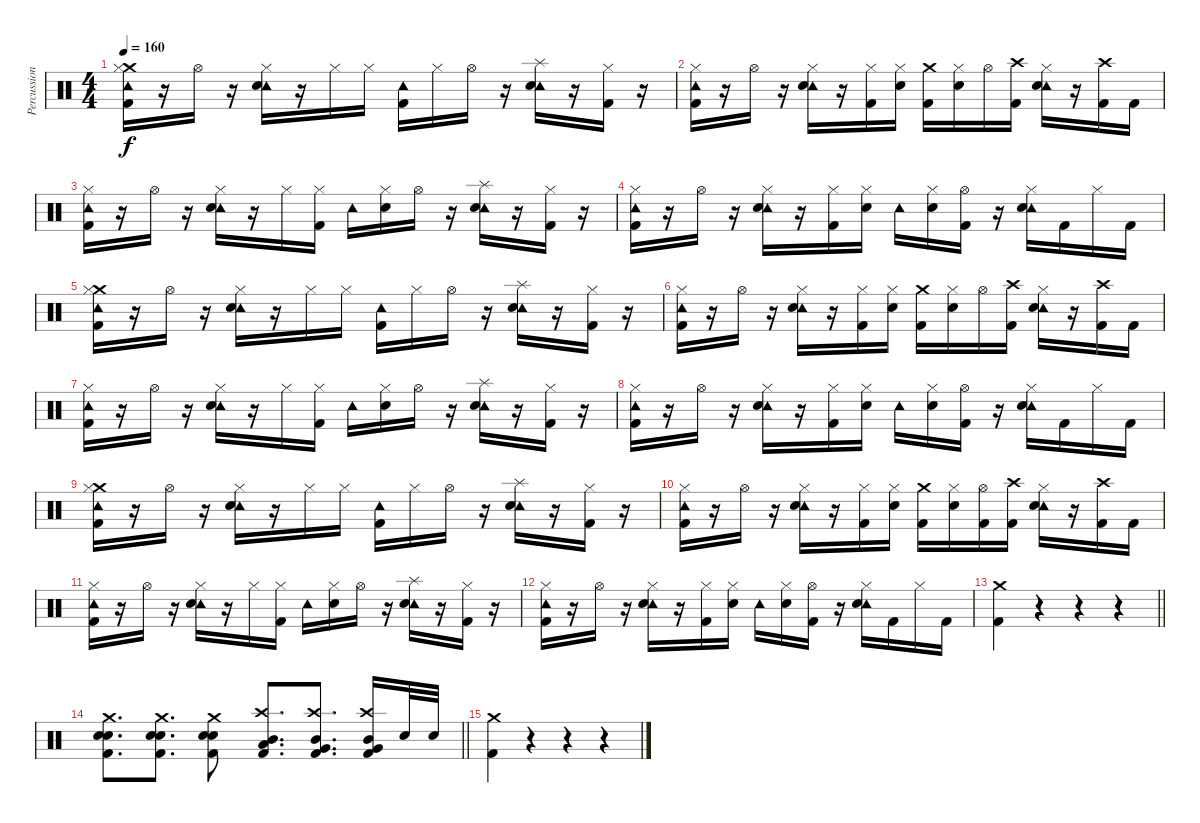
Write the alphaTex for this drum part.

\track ("Percussion" "Percussion") {instrument percussion}
\staff {score}
\articulation defaults
\ts (4 4)
\tempo 160
\clef neutral
\ks c
("Crash medium (hit)" "Tambourine (hit)" "Hi-Hat (closed)" "Kick (hit) 2").16{dy f} r.16 "Hi-Hat (open)".16 r.16 ("Tambourine (hit)" "Hi-Hat (closed)" "Electric Snare (hit)").16 r.16 "Hi-Hat (closed)".16 "Hi-Hat (closed)".16 ("Tambourine (hit)" "Kick (hit) 2").16 "Hi-Hat (closed)".16 "Hi-Hat (open)".16 r.16 ("Tambourine (hit)" "Electric Snare (hit)" "Splash (hit)").16 r.16 ("Hi-Hat (closed)" "Kick (hit) 2").16 r.16 |
("Tambourine (hit)" "Hi-Hat (closed)" "Kick (hit) 2").16 r.16 "Hi-Hat (open)".16 r.16 ("Tambourine (hit)" "Hi-Hat (closed)" "Electric Snare (hit)").16 r.16 ("Hi-Hat (closed)" "Kick (hit) 2").16 ("Electric Snare (hit)" "Hi-Hat (closed)").16 ("Crash medium (hit)" "Kick (hit) 2").16 ("Hi-Hat (closed)" "Electric Snare (hit)").16 "Hi-Hat (open)".16 ("Crash high (hit)" "Kick (hit) 2").16 ("Tambourine (hit)" "Hi-Hat (closed)" "Electric Snare (hit)").16 r.16 ("Crash high (hit)" "Kick (hit) 2").16 "Kick (hit) 2".16 |
("Tambourine (hit)" "Hi-Hat (closed)" "Kick (hit) 2").16 r.16 "Hi-Hat (open)".16 r.16 ("Tambourine (hit)" "Hi-Hat (closed)" "Electric Snare (hit)").16 r.16 "Hi-Hat (closed)".16 ("Hi-Hat (closed)" "Kick (hit) 2").16 "Tambourine (hit)".16 ("Hi-Hat (closed)" "Electric Snare (hit)").16 "Hi-Hat (open)".16 r.16 ("Tambourine (hit)" "Electric Snare (hit)" "Splash (hit)").16 r.16 ("Hi-Hat (closed)" "Kick (hit) 2").16 r.16 |
("Tambourine (hit)" "Hi-Hat (closed)" "Kick (hit) 2").16 r.16 "Hi-Hat (open)".16 r.16 ("Tambourine (hit)" "Hi-Hat (closed)" "Electric Snare (hit)").16 r.16 ("Hi-Hat (closed)" "Kick (hit) 2").16 ("Electric Snare (hit)" "Hi-Hat (closed)").16 "Tambourine (hit)".16 ("Hi-Hat (closed)" "Electric Snare (hit)").16 ("Hi-Hat (open)" "Kick (hit) 2").16 r.16 ("Tambourine (hit)" "Hi-Hat (closed)" "Electric Snare (hit)").16 "Kick (hit) 2".16 "Hi-Hat (closed)".16 "Kick (hit) 2".16 |
("Crash medium (hit)" "Tambourine (hit)" "Hi-Hat (closed)" "Kick (hit) 2").16 r.16 "Hi-Hat (open)".16 r.16 ("Tambourine (hit)" "Hi-Hat (closed)" "Electric Snare (hit)").16 r.16 "Hi-Hat (closed)".16 "Hi-Hat (closed)".16 ("Tambourine (hit)" "Kick (hit) 2").16 "Hi-Hat (closed)".16 "Hi-Hat (open)".16 r.16 ("Tambourine (hit)" "Electric Snare (hit)" "Splash (hit)").16 r.16 ("Hi-Hat (closed)" "Kick (hit) 2").16 r.16 |
("Tambourine (hit)" "Hi-Hat (closed)" "Kick (hit) 2").16 r.16 "Hi-Hat (open)".16 r.16 ("Tambourine (hit)" "Hi-Hat (closed)" "Electric Snare (hit)").16 r.16 ("Hi-Hat (closed)" "Kick (hit) 2").16 ("Electric Snare (hit)" "Hi-Hat (closed)").16 ("Crash medium (hit)" "Kick (hit) 2").16 ("Hi-Hat (closed)" "Electric Snare (hit)").16 "Hi-Hat (open)".16 ("Crash high (hit)" "Kick (hit) 2").16 ("Tambourine (hit)" "Hi-Hat (closed)" "Electric Snare (hit)").16 r.16 ("Crash high (hit)" "Kick (hit) 2").16 "Kick (hit) 2".16 |
("Tambourine (hit)" "Hi-Hat (closed)" "Kick (hit) 2").16 r.16 "Hi-Hat (open)".16 r.16 ("Tambourine (hit)" "Hi-Hat (closed)" "Electric Snare (hit)").16 r.16 "Hi-Hat (closed)".16 ("Hi-Hat (closed)" "Kick (hit) 2").16 "Tambourine (hit)".16 ("Hi-Hat (closed)" "Electric Snare (hit)").16 "Hi-Hat (open)".16 r.16 ("Tambourine (hit)" "Electric Snare (hit)" "Splash (hit)").16 r.16 ("Hi-Hat (closed)" "Kick (hit) 2").16 r.16 |
("Tambourine (hit)" "Hi-Hat (closed)" "Kick (hit) 2").16 r.16 "Hi-Hat (open)".16 r.16 ("Tambourine (hit)" "Hi-Hat (closed)" "Electric Snare (hit)").16 r.16 ("Hi-Hat (closed)" "Kick (hit) 2").16 ("Electric Snare (hit)" "Hi-Hat (closed)").16 "Tambourine (hit)".16 ("Hi-Hat (closed)" "Electric Snare (hit)").16 ("Hi-Hat (open)" "Kick (hit) 2").16 r.16 ("Tambourine (hit)" "Hi-Hat (closed)" "Electric Snare (hit)").16 "Kick (hit) 2".16 "Hi-Hat (closed)".16 "Kick (hit) 2".16 |
("Crash medium (hit)" "Tambourine (hit)" "Hi-Hat (closed)" "Kick (hit) 2").16 r.16 "Hi-Hat (open)".16 r.16 ("Tambourine (hit)" "Hi-Hat (closed)" "Electric Snare (hit)").16 r.16 "Hi-Hat (closed)".16 "Hi-Hat (closed)".16 ("Tambourine (hit)" "Kick (hit) 2").16 "Hi-Hat (closed)".16 "Hi-Hat (open)".16 r.16 ("Tambourine (hit)" "Electric Snare (hit)" "Splash (hit)").16 r.16 ("Hi-Hat (closed)" "Kick (hit) 2").16 r.16 |
("Tambourine (hit)" "Hi-Hat (closed)" "Kick (hit) 2").16 r.16 "Hi-Hat (open)".16 r.16 ("Tambourine (hit)" "Hi-Hat (closed)" "Electric Snare (hit)").16 r.16 ("Hi-Hat (closed)" "Kick (hit) 2").16 ("Electric Snare (hit)" "Hi-Hat (closed)").16 ("Crash medium (hit)" "Kick (hit) 2").16 ("Hi-Hat (closed)" "Electric Snare (hit)").16 ("Hi-Hat (open)" "Kick (hit) 2").16 ("Crash high (hit)" "Kick (hit) 2").16 ("Tambourine (hit)" "Hi-Hat (closed)" "Electric Snare (hit)").16 r.16 ("Crash high (hit)" "Kick (hit) 2").16 "Kick (hit) 2".16 |
("Tambourine (hit)" "Hi-Hat (closed)" "Kick (hit) 2").16 r.16 "Hi-Hat (open)".16 r.16 ("Tambourine (hit)" "Hi-Hat (closed)" "Electric Snare (hit)").16 r.16 "Hi-Hat (closed)".16 ("Hi-Hat (closed)" "Kick (hit) 2").16 "Tambourine (hit)".16 ("Hi-Hat (closed)" "Electric Snare (hit)").16 "Hi-Hat (open)".16 r.16 ("Tambourine (hit)" "Electric Snare (hit)" "Splash (hit)").16 r.16 ("Hi-Hat (closed)" "Kick (hit) 2").16 r.16 |
("Tambourine (hit)" "Hi-Hat (closed)" "Kick (hit) 2").16 r.16 "Hi-Hat (open)".16 r.16 ("Tambourine (hit)" "Hi-Hat (closed)" "Electric Snare (hit)").16 r.16 ("Hi-Hat (closed)" "Kick (hit) 2").16 ("Electric Snare (hit)" "Hi-Hat (closed)").16 "Tambourine (hit)".16 ("Hi-Hat (closed)" "Electric Snare (hit)").16 ("Hi-Hat (open)" "Kick (hit) 2").16 r.16 ("Tambourine (hit)" "Hi-Hat (closed)" "Electric Snare (hit)").16 "Kick (hit) 2".16 "Hi-Hat (closed)".16 "Kick (hit) 2".16 |
\barLineRight lightlight
("Crash medium (hit)" "Kick (hit) 2").4 r.4 r.4 r.4 |
\barLineRight lightlight
("Crash medium (hit)" "Kick (hit) 2" "Electric Snare (hit)" "Electric Snare (hit)").8{d bd 60} ("Crash medium (hit)" "Kick (hit) 2" "Electric Snare (hit)" "Electric Snare (hit)").8{d bd 60} ("Crash medium (hit)" "Kick (hit) 2" "Electric Snare (hit)" "Electric Snare (hit)").8{bd 60} ("Crash high (hit)" "Kick (hit) 2" "Mid Tom (hit)" "Low Tom (hit)").8{d bd 60} ("Crash high (hit)" "Kick (hit) 2" "Mid Tom (hit)" "Very Low Tom (hit)").8{d bd 60} ("Crash high (hit)" "Kick (hit) 2" "Mid Tom (hit)" "Very Low Tom (hit)").16{bd 60} "Electric Snare (hit)".32 "Electric Snare (hit)".32 |
("Crash medium (hit)" "Kick (hit) 2").4 r.4 r.4 r.4
